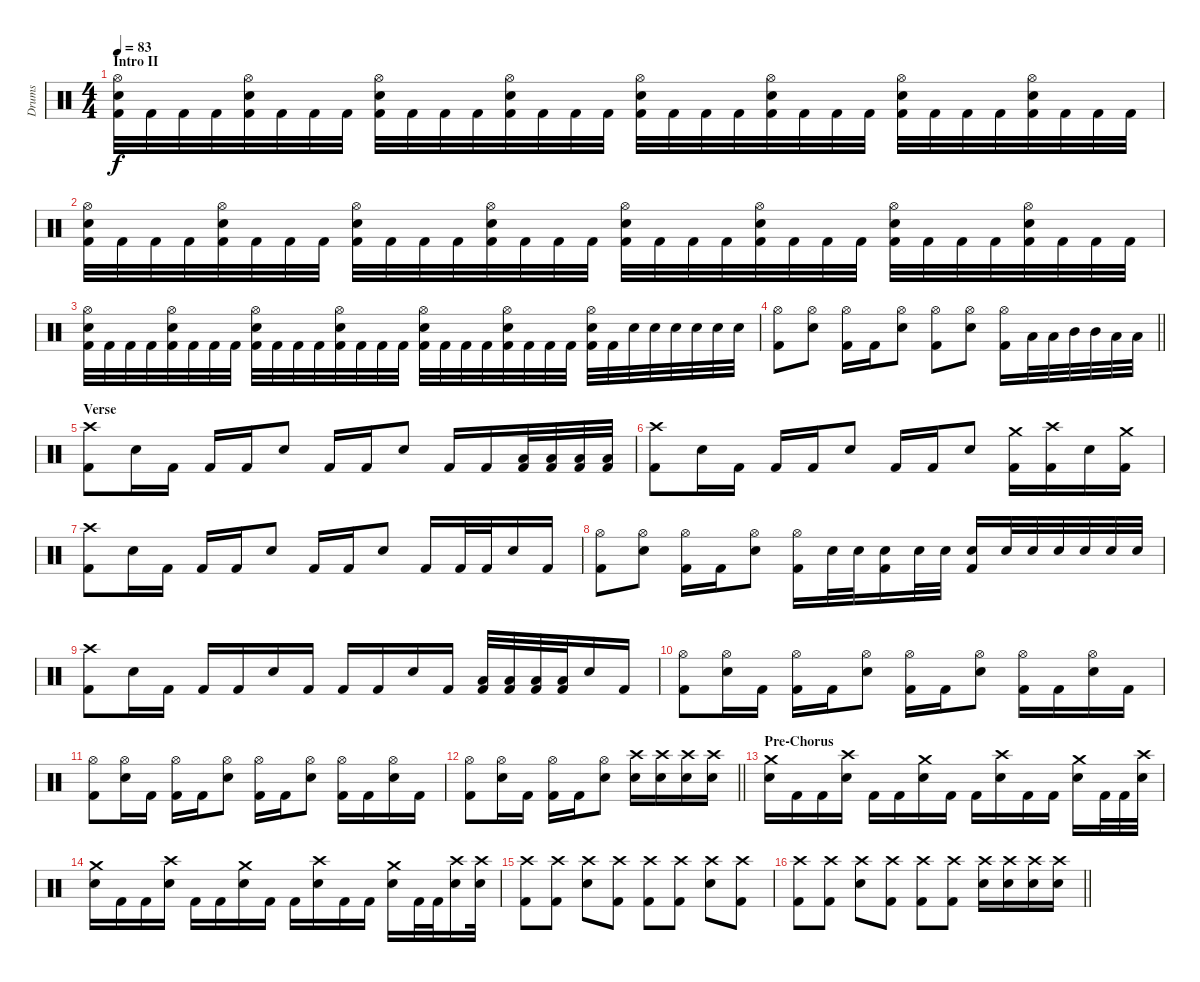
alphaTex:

\track ("Drums" "Drums") {instrument percussion}
\staff {score}
\articulation defaults
\ts (4 4)
\section ("" "Intro II")
\tempo 83
\clef neutral
\ks c
("Hi-Hat (open)" "Snare (hit) 2" "Kick (hit) 2").32{dy f} "Kick (hit) 2".32 "Kick (hit) 2".32 "Kick (hit) 2".32 ("Hi-Hat (open)" "Snare (hit) 2" "Kick (hit) 2").32 "Kick (hit) 2".32 "Kick (hit) 2".32 "Kick (hit) 2".32 ("Hi-Hat (open)" "Snare (hit) 2" "Kick (hit) 2").32 "Kick (hit) 2".32 "Kick (hit) 2".32 "Kick (hit) 2".32 ("Hi-Hat (open)" "Snare (hit) 2" "Kick (hit) 2").32 "Kick (hit) 2".32 "Kick (hit) 2".32 "Kick (hit) 2".32 ("Hi-Hat (open)" "Snare (hit) 2" "Kick (hit) 2").32 "Kick (hit) 2".32 "Kick (hit) 2".32 "Kick (hit) 2".32 ("Hi-Hat (open)" "Snare (hit) 2" "Kick (hit) 2").32 "Kick (hit) 2".32 "Kick (hit) 2".32 "Kick (hit) 2".32 ("Hi-Hat (open)" "Snare (hit) 2" "Kick (hit) 2").32 "Kick (hit) 2".32 "Kick (hit) 2".32 "Kick (hit) 2".32 ("Hi-Hat (open)" "Snare (hit) 2" "Kick (hit) 2").32 "Kick (hit) 2".32 "Kick (hit) 2".32 "Kick (hit) 2".32 |
("Hi-Hat (open)" "Snare (hit) 2" "Kick (hit) 2").32 "Kick (hit) 2".32 "Kick (hit) 2".32 "Kick (hit) 2".32 ("Hi-Hat (open)" "Snare (hit) 2" "Kick (hit) 2").32 "Kick (hit) 2".32 "Kick (hit) 2".32 "Kick (hit) 2".32 ("Hi-Hat (open)" "Snare (hit) 2" "Kick (hit) 2").32 "Kick (hit) 2".32 "Kick (hit) 2".32 "Kick (hit) 2".32 ("Hi-Hat (open)" "Snare (hit) 2" "Kick (hit) 2").32 "Kick (hit) 2".32 "Kick (hit) 2".32 "Kick (hit) 2".32 ("Hi-Hat (open)" "Snare (hit) 2" "Kick (hit) 2").32 "Kick (hit) 2".32 "Kick (hit) 2".32 "Kick (hit) 2".32 ("Hi-Hat (open)" "Snare (hit) 2" "Kick (hit) 2").32 "Kick (hit) 2".32 "Kick (hit) 2".32 "Kick (hit) 2".32 ("Hi-Hat (open)" "Snare (hit) 2" "Kick (hit) 2").32 "Kick (hit) 2".32 "Kick (hit) 2".32 "Kick (hit) 2".32 ("Hi-Hat (open)" "Snare (hit) 2" "Kick (hit) 2").32 "Kick (hit) 2".32 "Kick (hit) 2".32 "Kick (hit) 2".32 |
("Hi-Hat (open)" "Snare (hit) 2" "Kick (hit) 2").32 "Kick (hit) 2".32 "Kick (hit) 2".32 "Kick (hit) 2".32 ("Hi-Hat (open)" "Snare (hit) 2" "Kick (hit) 2").32 "Kick (hit) 2".32 "Kick (hit) 2".32 "Kick (hit) 2".32 ("Hi-Hat (open)" "Snare (hit) 2" "Kick (hit) 2").32 "Kick (hit) 2".32 "Kick (hit) 2".32 "Kick (hit) 2".32 ("Hi-Hat (open)" "Snare (hit) 2" "Kick (hit) 2").32 "Kick (hit) 2".32 "Kick (hit) 2".32 "Kick (hit) 2".32 ("Hi-Hat (open)" "Snare (hit) 2" "Kick (hit) 2").32 "Kick (hit) 2".32 "Kick (hit) 2".32 "Kick (hit) 2".32 ("Hi-Hat (open)" "Snare (hit) 2" "Kick (hit) 2").32 "Kick (hit) 2".32 "Kick (hit) 2".32 "Kick (hit) 2".32 ("Hi-Hat (open)" "Snare (hit) 2" "Kick (hit) 2").32 "Kick (hit) 2".32 "Snare (hit) 2".32 "Snare (hit) 2".32 "Snare (hit) 2".32 "Snare (hit) 2".32 "Snare (hit) 2".32 "Snare (hit) 2".32 |
\barLineRight lightlight
("Hi-Hat (open)" "Kick (hit) 2").8 ("Hi-Hat (open)" "Snare (hit) 2").8 ("Hi-Hat (open)" "Kick (hit) 2").16 "Kick (hit) 2".16 ("Hi-Hat (open)" "Snare (hit) 2").8 ("Hi-Hat (open)" "Kick (hit) 2").8 ("Hi-Hat (open)" "Snare (hit) 2").8 ("Hi-Hat (open)" "Kick (hit) 2").16 "Low Floor Tom (hit)".32 "Low Floor Tom (hit)".32 "Mid Tom (hit)".32 "Mid Tom (hit)".32 "Low Tom (hit)".32 "Low Tom (hit)".32 |
\section ("" "Verse")
("Crash high (hit)" "Kick (hit) 2").8 "Snare (hit) 2".16 "Kick (hit) 2".16 "Kick (hit) 2".16 "Kick (hit) 2".16 "Snare (hit) 2".8 "Kick (hit) 2".16 "Kick (hit) 2".16 "Snare (hit) 2".8 "Kick (hit) 2".16 "Kick (hit) 2".16 ("Low Floor Tom (hit)" "Kick (hit) 2").32 ("Low Floor Tom (hit)" "Kick (hit) 2").32 ("Low Tom (hit)" "Kick (hit) 2").32 ("Low Tom (hit)" "Kick (hit) 2").32 |
("Crash high (hit)" "Kick (hit) 2").8 "Snare (hit) 2".16 "Kick (hit) 2".16 "Kick (hit) 2".16 "Kick (hit) 2".16 "Snare (hit) 2".8 "Kick (hit) 2".16 "Kick (hit) 2".16 "Snare (hit) 2".8 ("Crash medium (hit)" "Kick (hit) 2").16 ("Crash high (hit)" "Kick (hit) 2").16 "Snare (hit) 2".16 ("Crash medium (hit)" "Kick (hit) 2").16 |
("Crash high (hit)" "Kick (hit) 2").8 "Snare (hit) 2".16 "Kick (hit) 2".16 "Kick (hit) 2".16 "Kick (hit) 2".16 "Snare (hit) 2".8 "Kick (hit) 2".16 "Kick (hit) 2".16 "Snare (hit) 2".8 "Kick (hit) 2".16 "Kick (hit) 2".32 "Kick (hit) 2".32 "Snare (hit) 2".16 "Kick (hit) 2".16 |
("Hi-Hat (open)" "Kick (hit) 2").8 ("Hi-Hat (open)" "Snare (hit) 2").8 ("Hi-Hat (open)" "Kick (hit) 2").16 "Kick (hit) 2".16 ("Hi-Hat (open)" "Snare (hit) 2").8 ("Hi-Hat (open)" "Kick (hit) 2").16 "Snare (hit) 2".32 "Snare (hit) 2".32 ("Snare (hit) 2" "Kick (hit) 2").16 "Snare (hit) 2".32 "Snare (hit) 2".32 ("Snare (hit) 2" "Kick (hit) 2").16 "Snare (hit) 2".32 "Snare (hit) 2".32 "Snare (hit) 2".32 "Snare (hit) 2".32 "Snare (hit) 2".32 "Snare (hit) 2".32 |
("Crash high (hit)" "Kick (hit) 2").8 "Snare (hit) 2".16 "Kick (hit) 2".16 "Kick (hit) 2".16 "Kick (hit) 2".16 "Snare (hit) 2".16 "Kick (hit) 2".16 "Kick (hit) 2".16 "Kick (hit) 2".16 "Snare (hit) 2".16 "Kick (hit) 2".16 ("Low Floor Tom (hit)" "Kick (hit) 2").32 ("Low Floor Tom (hit)" "Kick (hit) 2").32 ("Low Tom (hit)" "Kick (hit) 2").32 ("Low Tom (hit)" "Kick (hit) 2").32 "Snare (hit) 2".16 "Kick (hit) 2".16 |
("Hi-Hat (open)" "Kick (hit) 2").8 ("Hi-Hat (open)" "Snare (hit) 2").16 "Kick (hit) 2".16 ("Hi-Hat (open)" "Kick (hit) 2").16 "Kick (hit) 2".16 ("Hi-Hat (open)" "Snare (hit) 2").8 ("Hi-Hat (open)" "Kick (hit) 2").16 "Kick (hit) 2".16 ("Hi-Hat (open)" "Snare (hit) 2").8 ("Hi-Hat (open)" "Kick (hit) 2").16 "Kick (hit) 2".16 ("Hi-Hat (open)" "Snare (hit) 2").16 "Kick (hit) 2".16 |
("Hi-Hat (open)" "Kick (hit) 2").8 ("Hi-Hat (open)" "Snare (hit) 2").16 "Kick (hit) 2".16 ("Hi-Hat (open)" "Kick (hit) 2").16 "Kick (hit) 2".16 ("Hi-Hat (open)" "Snare (hit) 2").8 ("Hi-Hat (open)" "Kick (hit) 2").16 "Kick (hit) 2".16 ("Hi-Hat (open)" "Snare (hit) 2").8 ("Hi-Hat (open)" "Kick (hit) 2").16 "Kick (hit) 2".16 ("Hi-Hat (open)" "Snare (hit) 2").16 "Kick (hit) 2".16 |
\barLineRight lightlight
("Hi-Hat (open)" "Kick (hit) 2").8 ("Hi-Hat (open)" "Snare (hit) 2").16 "Kick (hit) 2".16 ("Hi-Hat (open)" "Kick (hit) 2").16 "Kick (hit) 2".16 ("Hi-Hat (open)" "Snare (hit) 2").8 ("Crash high (hit)" "Snare (hit) 2").16 ("Crash high (hit)" "Snare (hit) 2").16 ("Crash high (hit)" "Snare (hit) 2").16 ("Crash high (hit)" "Snare (hit) 2").16 |
\section ("" "Pre-Chorus")
("Crash medium (hit)" "Snare (hit) 2").16 "Kick (hit) 2".16 "Kick (hit) 2".16 ("Crash high (hit)" "Snare (hit) 2").16 "Kick (hit) 2".16 "Kick (hit) 2".16 ("Crash medium (hit)" "Snare (hit) 2").16 "Kick (hit) 2".16 "Kick (hit) 2".16 ("Crash high (hit)" "Snare (hit) 2").16 "Kick (hit) 2".16 "Kick (hit) 2".16 ("Crash medium (hit)" "Snare (hit) 2").16 "Kick (hit) 2".32 "Kick (hit) 2".32 ("Crash high (hit)" "Snare (hit) 2").32 |
("Crash medium (hit)" "Snare (hit) 2").16 "Kick (hit) 2".16 "Kick (hit) 2".16 ("Crash high (hit)" "Snare (hit) 2").16 "Kick (hit) 2".16 "Kick (hit) 2".16 ("Crash medium (hit)" "Snare (hit) 2").16 "Kick (hit) 2".16 "Kick (hit) 2".16 ("Crash high (hit)" "Snare (hit) 2").16 "Kick (hit) 2".16 "Kick (hit) 2".16 ("Crash medium (hit)" "Snare (hit) 2").16 "Kick (hit) 2".32 "Kick (hit) 2".32 ("Crash high (hit)" "Snare (hit) 2").16 ("Crash high (hit)" "Snare (hit) 2").32 |
("Crash high (hit)" "Kick (hit) 2").8 ("Crash high (hit)" "Kick (hit) 2").8 ("Crash high (hit)" "Snare (hit) 2").8 ("Crash high (hit)" "Kick (hit) 2").8 ("Crash high (hit)" "Kick (hit) 2").8 ("Crash high (hit)" "Kick (hit) 2").8 ("Crash high (hit)" "Snare (hit) 2").8 ("Crash high (hit)" "Kick (hit) 2").8 |
\barLineRight lightlight
("Crash high (hit)" "Kick (hit) 2").8 ("Crash high (hit)" "Kick (hit) 2").8 ("Crash high (hit)" "Snare (hit) 2").8 ("Crash high (hit)" "Kick (hit) 2").8 ("Crash high (hit)" "Kick (hit) 2").8 ("Crash high (hit)" "Kick (hit) 2").8 ("Crash high (hit)" "Snare (hit) 2").16 ("Crash high (hit)" "Snare (hit) 2").16 ("Crash high (hit)" "Snare (hit) 2").16 ("Crash high (hit)" "Snare (hit) 2").16
